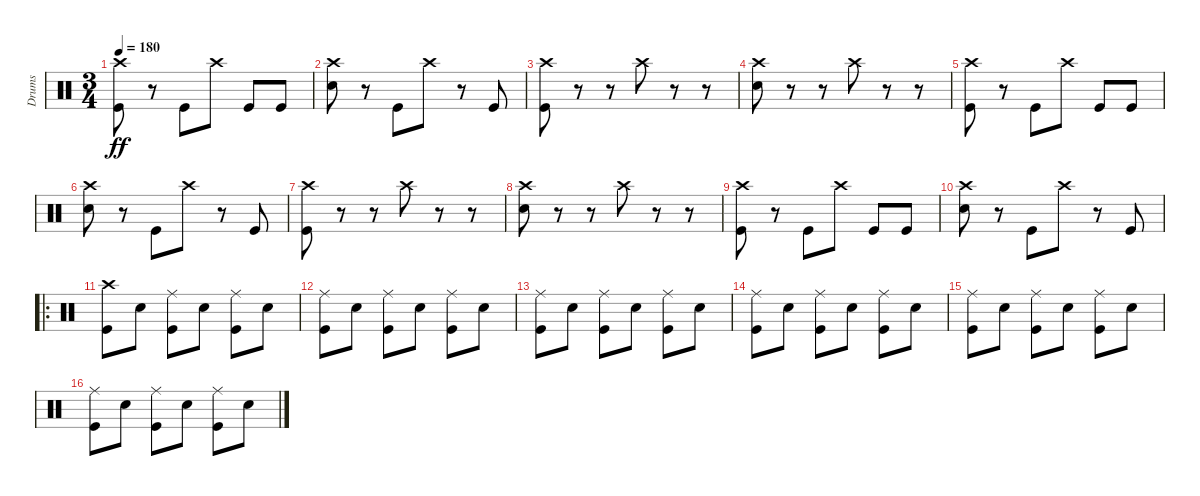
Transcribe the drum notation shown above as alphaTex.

\track ("Drums" "Drums") {instrument percussion}
\staff {score}
\articulation defaults
\ts (3 4)
\tempo 180
\clef neutral
\ks c
("Crash high (hit)" "Kick (hit)").8{dy ff} r.8 "Kick (hit)".8 "Crash high (hit)".8 "Kick (hit)".8 "Kick (hit)".8 |
("Crash high (hit)" "Snare (hit) 2").8 r.8 "Kick (hit)".8 "Crash high (hit)".8 r.8 "Kick (hit)".8 |
("Crash high (hit)" "Kick (hit)").8 r.8 r.8 "Crash high (hit)".8 r.8 r.8 |
("Crash high (hit)" "Snare (hit) 2").8 r.8 r.8 "Crash high (hit)".8 r.8 r.8 |
("Crash high (hit)" "Kick (hit)").8 r.8 "Kick (hit)".8 "Crash high (hit)".8 "Kick (hit)".8 "Kick (hit)".8 |
("Crash high (hit)" "Snare (hit) 2").8 r.8 "Kick (hit)".8 "Crash high (hit)".8 r.8 "Kick (hit)".8 |
("Crash high (hit)" "Kick (hit)").8 r.8 r.8 "Crash high (hit)".8 r.8 r.8 |
("Crash high (hit)" "Snare (hit) 2").8 r.8 r.8 "Crash high (hit)".8 r.8 r.8 |
("Crash high (hit)" "Kick (hit)").8 r.8 "Kick (hit)".8 "Crash high (hit)".8 "Kick (hit)".8 "Kick (hit)".8 |
("Crash high (hit)" "Snare (hit) 2").8 r.8 "Kick (hit)".8 "Crash high (hit)".8 r.8 "Kick (hit)".8 |
\ro
("Crash high (hit)" "Kick (hit)").8 "Snare (hit) 2".8 ("Ride (middle)" "Kick (hit)").8 "Snare (hit) 2".8 ("Ride (middle)" "Kick (hit)").8 "Snare (hit) 2".8 |
("Ride (middle)" "Kick (hit)").8 "Snare (hit) 2".8 ("Ride (middle)" "Kick (hit)").8 "Snare (hit) 2".8 ("Ride (middle)" "Kick (hit)").8 "Snare (hit) 2".8 |
("Ride (middle)" "Kick (hit)").8 "Snare (hit) 2".8 ("Ride (middle)" "Kick (hit)").8 "Snare (hit) 2".8 ("Ride (middle)" "Kick (hit)").8 "Snare (hit) 2".8 |
("Ride (middle)" "Kick (hit)").8 "Snare (hit) 2".8 ("Ride (middle)" "Kick (hit)").8 "Snare (hit) 2".8 ("Ride (middle)" "Kick (hit)").8 "Snare (hit) 2".8 |
("Ride (middle)" "Kick (hit)").8 "Snare (hit) 2".8 ("Ride (middle)" "Kick (hit)").8 "Snare (hit) 2".8 ("Ride (middle)" "Kick (hit)").8 "Snare (hit) 2".8 |
("Ride (middle)" "Kick (hit)").8 "Snare (hit) 2".8 ("Ride (middle)" "Kick (hit)").8 "Snare (hit) 2".8 ("Ride (middle)" "Kick (hit)").8 "Snare (hit) 2".8
